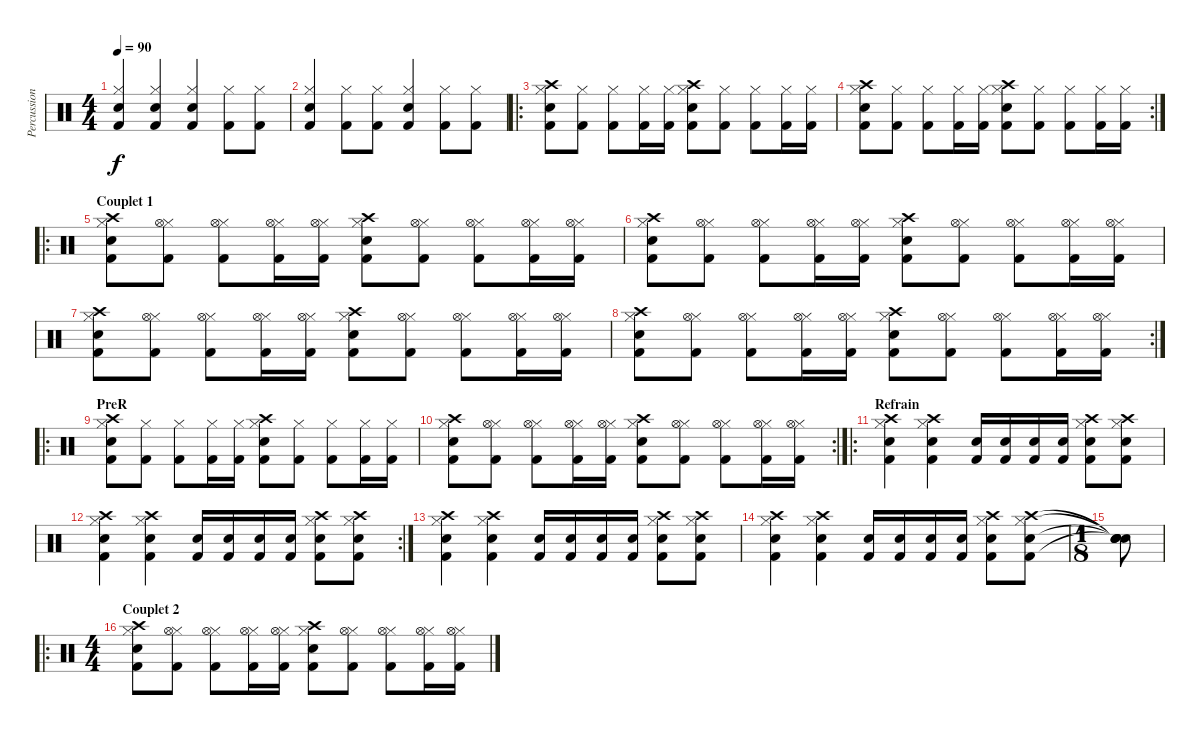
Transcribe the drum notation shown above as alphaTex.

\track ("Percussions" "Percussion") {instrument percussion}
\staff {score}
\articulation defaults
\ts (4 4)
\tempo 90
\clef neutral
\ks c
("Kick (hit) 2" "Hi-Hat (closed)" "Snare (hit) 2").4{dy f} ("Kick (hit) 2" "Snare (hit) 2" "Hi-Hat (closed)").4 ("Kick (hit) 2" "Snare (hit) 2" "Hi-Hat (closed)").4 ("Kick (hit) 2" "Hi-Hat (closed)").8 ("Kick (hit) 2" "Hi-Hat (closed)").8 |
("Kick (hit) 2" "Hi-Hat (closed)" "Snare (hit) 2").4 ("Kick (hit) 2" "Hi-Hat (closed)").8 ("Kick (hit) 2" "Hi-Hat (closed)").8 ("Kick (hit) 2" "Snare (hit) 2" "Hi-Hat (closed)").4 ("Kick (hit) 2" "Hi-Hat (closed)").8 ("Kick (hit) 2" "Hi-Hat (closed)").8 |
\ro
("Kick (hit) 2" "Hi-Hat (closed)" "Snare (hit) 2" "Crash high (hit)").8 ("Kick (hit) 2" "Hi-Hat (closed)").8 ("Kick (hit) 2" "Hi-Hat (closed)").8 ("Kick (hit) 2" "Hi-Hat (closed)").16 ("Kick (hit) 2" "Hi-Hat (closed)").16 ("Kick (hit) 2" "Hi-Hat (closed)" "Snare (hit) 2" "Crash high (hit)").8 ("Kick (hit) 2" "Hi-Hat (closed)").8 ("Kick (hit) 2" "Hi-Hat (closed)").8 ("Hi-Hat (closed)" "Kick (hit) 2").16 ("Hi-Hat (closed)" "Kick (hit) 2").16 |
\rc 2
("Kick (hit) 2" "Hi-Hat (closed)" "Snare (hit) 2" "Crash high (hit)").8 ("Kick (hit) 2" "Hi-Hat (closed)").8 ("Kick (hit) 2" "Hi-Hat (closed)").8 ("Kick (hit) 2" "Hi-Hat (closed)").16 ("Kick (hit) 2" "Hi-Hat (closed)").16 ("Kick (hit) 2" "Hi-Hat (closed)" "Snare (hit) 2" "Crash high (hit)").8 ("Kick (hit) 2" "Hi-Hat (closed)").8 ("Kick (hit) 2" "Hi-Hat (closed)").8 ("Hi-Hat (closed)" "Kick (hit) 2").16 ("Hi-Hat (closed)" "Kick (hit) 2").16 |
\ro
\section ("" "Couplet 1")
("Kick (hit) 2" "Hi-Hat (closed)" "Snare (hit) 2" "Crash high (hit)").8 ("Kick (hit) 2" "Hi-Hat (closed)" "Hi-Hat (open)").8 ("Kick (hit) 2" "Hi-Hat (closed)" "Hi-Hat (open)").8 ("Kick (hit) 2" "Hi-Hat (closed)" "Hi-Hat (open)").16 ("Kick (hit) 2" "Hi-Hat (closed)" "Hi-Hat (open)").16 ("Kick (hit) 2" "Hi-Hat (closed)" "Snare (hit) 2" "Crash high (hit)").8 ("Kick (hit) 2" "Hi-Hat (closed)" "Hi-Hat (open)").8 ("Kick (hit) 2" "Hi-Hat (closed)" "Hi-Hat (open)").8 ("Hi-Hat (closed)" "Kick (hit) 2" "Hi-Hat (open)").16 ("Hi-Hat (closed)" "Kick (hit) 2" "Hi-Hat (open)").16 |
("Kick (hit) 2" "Hi-Hat (closed)" "Snare (hit) 2" "Crash high (hit)").8 ("Kick (hit) 2" "Hi-Hat (closed)" "Hi-Hat (open)").8 ("Kick (hit) 2" "Hi-Hat (closed)" "Hi-Hat (open)").8 ("Kick (hit) 2" "Hi-Hat (closed)" "Hi-Hat (open)").16 ("Kick (hit) 2" "Hi-Hat (closed)" "Hi-Hat (open)").16 ("Kick (hit) 2" "Hi-Hat (closed)" "Snare (hit) 2" "Crash high (hit)").8 ("Kick (hit) 2" "Hi-Hat (closed)" "Hi-Hat (open)").8 ("Kick (hit) 2" "Hi-Hat (closed)" "Hi-Hat (open)").8 ("Hi-Hat (closed)" "Kick (hit) 2" "Hi-Hat (open)").16 ("Hi-Hat (closed)" "Kick (hit) 2" "Hi-Hat (open)").16 |
("Kick (hit) 2" "Hi-Hat (closed)" "Snare (hit) 2" "Crash high (hit)").8 ("Kick (hit) 2" "Hi-Hat (closed)" "Hi-Hat (open)").8 ("Kick (hit) 2" "Hi-Hat (closed)" "Hi-Hat (open)").8 ("Kick (hit) 2" "Hi-Hat (closed)" "Hi-Hat (open)").16 ("Kick (hit) 2" "Hi-Hat (closed)" "Hi-Hat (open)").16 ("Kick (hit) 2" "Hi-Hat (closed)" "Snare (hit) 2" "Crash high (hit)").8 ("Kick (hit) 2" "Hi-Hat (closed)" "Hi-Hat (open)").8 ("Kick (hit) 2" "Hi-Hat (closed)" "Hi-Hat (open)").8 ("Hi-Hat (closed)" "Kick (hit) 2" "Hi-Hat (open)").16 ("Hi-Hat (closed)" "Kick (hit) 2" "Hi-Hat (open)").16 |
\rc 2
("Kick (hit) 2" "Hi-Hat (closed)" "Snare (hit) 2" "Crash high (hit)").8 ("Kick (hit) 2" "Hi-Hat (closed)" "Hi-Hat (open)").8 ("Kick (hit) 2" "Hi-Hat (closed)" "Hi-Hat (open)").8 ("Kick (hit) 2" "Hi-Hat (closed)" "Hi-Hat (open)").16 ("Kick (hit) 2" "Hi-Hat (closed)" "Hi-Hat (open)").16 ("Kick (hit) 2" "Hi-Hat (closed)" "Snare (hit) 2" "Crash high (hit)").8 ("Kick (hit) 2" "Hi-Hat (closed)" "Hi-Hat (open)").8 ("Kick (hit) 2" "Hi-Hat (closed)" "Hi-Hat (open)").8 ("Hi-Hat (closed)" "Kick (hit) 2" "Hi-Hat (open)").16 ("Hi-Hat (closed)" "Kick (hit) 2" "Hi-Hat (open)").16 |
\ro
\section ("" "PreR")
("Kick (hit) 2" "Hi-Hat (closed)" "Snare (hit) 2" "Crash high (hit)").8 ("Kick (hit) 2" "Hi-Hat (closed)").8 ("Kick (hit) 2" "Hi-Hat (closed)").8 ("Kick (hit) 2" "Hi-Hat (closed)").16 ("Kick (hit) 2" "Hi-Hat (closed)").16 ("Kick (hit) 2" "Hi-Hat (closed)" "Snare (hit) 2" "Crash high (hit)").8 ("Kick (hit) 2" "Hi-Hat (closed)").8 ("Kick (hit) 2" "Hi-Hat (closed)").8 ("Hi-Hat (closed)" "Kick (hit) 2").16 ("Hi-Hat (closed)" "Kick (hit) 2").16 |
\rc 2
("Kick (hit) 2" "Hi-Hat (closed)" "Snare (hit) 2" "Crash high (hit)").8 ("Kick (hit) 2" "Hi-Hat (closed)" "Hi-Hat (open)").8 ("Kick (hit) 2" "Hi-Hat (closed)" "Hi-Hat (open)").8 ("Kick (hit) 2" "Hi-Hat (closed)" "Hi-Hat (open)").16 ("Kick (hit) 2" "Hi-Hat (closed)" "Hi-Hat (open)").16 ("Kick (hit) 2" "Hi-Hat (closed)" "Snare (hit) 2" "Crash high (hit)").8 ("Kick (hit) 2" "Hi-Hat (closed)" "Hi-Hat (open)").8 ("Kick (hit) 2" "Hi-Hat (closed)" "Hi-Hat (open)").8 ("Hi-Hat (closed)" "Kick (hit) 2" "Hi-Hat (open)").16 ("Hi-Hat (closed)" "Kick (hit) 2" "Hi-Hat (open)").16 |
\ro
\section ("" "Refrain")
("Kick (hit) 2" "Hi-Hat (closed)" "Snare (hit) 2" "Crash high (hit)").4 ("Kick (hit) 2" "Hi-Hat (closed)" "Snare (hit) 2" "Crash high (hit)").4 ("Kick (hit) 2" "Snare (hit) 2").16 ("Kick (hit) 2" "Snare (hit) 2").16 ("Kick (hit) 2" "Snare (hit) 2").16 ("Kick (hit) 2" "Snare (hit) 2").16 ("Kick (hit) 2" "Hi-Hat (closed)" "Snare (hit) 2" "Crash high (hit)").8 ("Kick (hit) 2" "Hi-Hat (closed)" "Snare (hit) 2" "Crash high (hit)").8 |
\rc 2
("Kick (hit) 2" "Hi-Hat (closed)" "Snare (hit) 2" "Crash high (hit)").4 ("Kick (hit) 2" "Hi-Hat (closed)" "Snare (hit) 2" "Crash high (hit)").4 ("Kick (hit) 2" "Snare (hit) 2").16 ("Kick (hit) 2" "Snare (hit) 2").16 ("Kick (hit) 2" "Snare (hit) 2").16 ("Kick (hit) 2" "Snare (hit) 2").16 ("Kick (hit) 2" "Hi-Hat (closed)" "Snare (hit) 2" "Crash high (hit)").8 ("Kick (hit) 2" "Hi-Hat (closed)" "Snare (hit) 2" "Crash high (hit)").8 |
("Kick (hit) 2" "Hi-Hat (closed)" "Snare (hit) 2" "Crash high (hit)").4 ("Kick (hit) 2" "Hi-Hat (closed)" "Snare (hit) 2" "Crash high (hit)").4 ("Kick (hit) 2" "Snare (hit) 2").16 ("Kick (hit) 2" "Snare (hit) 2").16 ("Kick (hit) 2" "Snare (hit) 2").16 ("Kick (hit) 2" "Snare (hit) 2").16 ("Kick (hit) 2" "Hi-Hat (closed)" "Snare (hit) 2" "Crash high (hit)").8 ("Kick (hit) 2" "Hi-Hat (closed)" "Snare (hit) 2" "Crash high (hit)").8 |
("Kick (hit) 2" "Hi-Hat (closed)" "Snare (hit) 2" "Crash high (hit)").4 ("Kick (hit) 2" "Hi-Hat (closed)" "Snare (hit) 2" "Crash high (hit)").4 ("Kick (hit) 2" "Snare (hit) 2").16 ("Kick (hit) 2" "Snare (hit) 2").16 ("Kick (hit) 2" "Snare (hit) 2").16 ("Kick (hit) 2" "Snare (hit) 2").16 ("Kick (hit) 2" "Hi-Hat (closed)" "Snare (hit) 2" "Crash high (hit)").8 ("Kick (hit) 2" "Hi-Hat (closed)" "Snare (hit) 2" "Crash high (hit)").8 |
\ts (1 8)
("Snare (hit)"{t} "Snare (hit)"{t} "Snare (hit)"{t} "Snare (hit)"{t}).8 |
\ro
\ts (4 4)
\section ("" "Couplet 2")
("Kick (hit) 2" "Hi-Hat (closed)" "Snare (hit) 2" "Crash high (hit)").8 ("Kick (hit) 2" "Hi-Hat (closed)" "Hi-Hat (open)").8 ("Kick (hit) 2" "Hi-Hat (closed)" "Hi-Hat (open)").8 ("Kick (hit) 2" "Hi-Hat (closed)" "Hi-Hat (open)").16 ("Kick (hit) 2" "Hi-Hat (closed)" "Hi-Hat (open)").16 ("Kick (hit) 2" "Hi-Hat (closed)" "Snare (hit) 2" "Crash high (hit)").8 ("Kick (hit) 2" "Hi-Hat (closed)" "Hi-Hat (open)").8 ("Kick (hit) 2" "Hi-Hat (closed)" "Hi-Hat (open)").8 ("Hi-Hat (closed)" "Kick (hit) 2" "Hi-Hat (open)").16 ("Hi-Hat (closed)" "Kick (hit) 2" "Hi-Hat (open)").16
